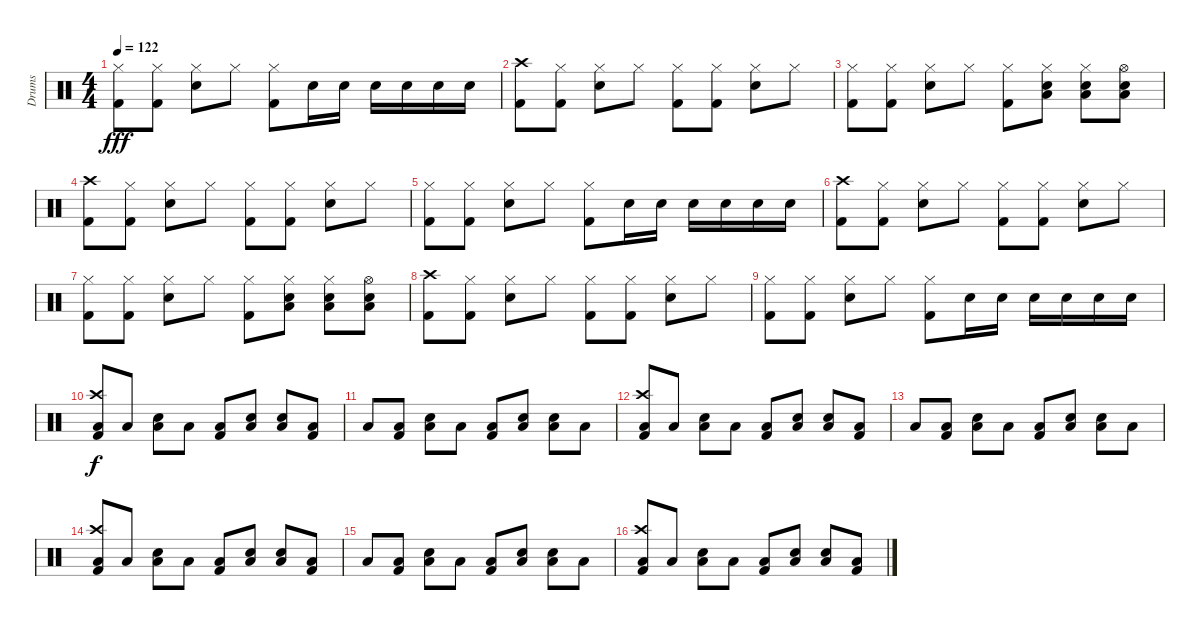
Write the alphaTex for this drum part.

\track ("Drums" "Drums") {instrument percussion}
\staff {score}
\articulation defaults
\ts (4 4)
\tempo 122
\clef neutral
\ks c
("Hi-Hat (closed)" "Kick (hit) 2").8{dy fff} ("Hi-Hat (closed)" "Kick (hit) 2").8 ("Hi-Hat (closed)" "Snare (hit) 2").8 "Hi-Hat (closed)".8 ("Hi-Hat (closed)" "Kick (hit) 2").8 "Snare (hit) 2".16 "Snare (hit) 2".16 "Snare (hit) 2".16 "Snare (hit) 2".16 "Snare (hit) 2".16 "Snare (hit) 2".16 |
("Crash high (hit)" "Kick (hit) 2").8 ("Hi-Hat (closed)" "Kick (hit) 2").8 ("Hi-Hat (closed)" "Snare (hit) 2").8 "Hi-Hat (closed)".8 ("Hi-Hat (closed)" "Kick (hit) 2").8 ("Hi-Hat (closed)" "Kick (hit) 2").8 ("Hi-Hat (closed)" "Snare (hit) 2").8 "Hi-Hat (closed)".8 |
("Hi-Hat (closed)" "Kick (hit) 2").8 ("Hi-Hat (closed)" "Kick (hit) 2").8 ("Hi-Hat (closed)" "Snare (hit) 2").8 "Hi-Hat (closed)".8 ("Hi-Hat (closed)" "Kick (hit) 2").8 ("Hi-Hat (closed)" "Snare (hit) 2" "Low Floor Tom (hit)").8 ("Hi-Hat (closed)" "Snare (hit) 2" "Low Floor Tom (hit)").8 ("Hi-Hat (open)" "Snare (hit) 2" "Low Floor Tom (hit)").8 |
("Crash high (hit)" "Kick (hit) 2").8 ("Hi-Hat (closed)" "Kick (hit) 2").8 ("Hi-Hat (closed)" "Snare (hit) 2").8 "Hi-Hat (closed)".8 ("Hi-Hat (closed)" "Kick (hit) 2").8 ("Hi-Hat (closed)" "Kick (hit) 2").8 ("Hi-Hat (closed)" "Snare (hit) 2").8 "Hi-Hat (closed)".8 |
("Hi-Hat (closed)" "Kick (hit) 2").8 ("Hi-Hat (closed)" "Kick (hit) 2").8 ("Hi-Hat (closed)" "Snare (hit) 2").8 "Hi-Hat (closed)".8 ("Hi-Hat (closed)" "Kick (hit) 2").8 "Snare (hit) 2".16 "Snare (hit) 2".16 "Snare (hit) 2".16 "Snare (hit) 2".16 "Snare (hit) 2".16 "Snare (hit) 2".16 |
("Crash high (hit)" "Kick (hit) 2").8 ("Hi-Hat (closed)" "Kick (hit) 2").8 ("Hi-Hat (closed)" "Snare (hit) 2").8 "Hi-Hat (closed)".8 ("Hi-Hat (closed)" "Kick (hit) 2").8 ("Hi-Hat (closed)" "Kick (hit) 2").8 ("Hi-Hat (closed)" "Snare (hit) 2").8 "Hi-Hat (closed)".8 |
("Hi-Hat (closed)" "Kick (hit) 2").8 ("Hi-Hat (closed)" "Kick (hit) 2").8 ("Hi-Hat (closed)" "Snare (hit) 2").8 "Hi-Hat (closed)".8 ("Hi-Hat (closed)" "Kick (hit) 2").8 ("Hi-Hat (closed)" "Snare (hit) 2" "Low Floor Tom (hit)").8 ("Hi-Hat (closed)" "Snare (hit) 2" "Low Floor Tom (hit)").8 ("Hi-Hat (open)" "Snare (hit) 2" "Low Floor Tom (hit)").8 |
("Crash high (hit)" "Kick (hit) 2").8 ("Hi-Hat (closed)" "Kick (hit) 2").8 ("Hi-Hat (closed)" "Snare (hit) 2").8 "Hi-Hat (closed)".8 ("Hi-Hat (closed)" "Kick (hit) 2").8 ("Hi-Hat (closed)" "Kick (hit) 2").8 ("Hi-Hat (closed)" "Snare (hit) 2").8 "Hi-Hat (closed)".8 |
("Hi-Hat (closed)" "Kick (hit) 2").8 ("Hi-Hat (closed)" "Kick (hit) 2").8 ("Hi-Hat (closed)" "Snare (hit) 2").8 "Hi-Hat (closed)".8 ("Hi-Hat (closed)" "Kick (hit) 2").8 "Snare (hit) 2".16 "Snare (hit) 2".16 "Snare (hit) 2".16 "Snare (hit) 2".16 "Snare (hit) 2".16 "Snare (hit) 2".16 |
("Crash high (hit)" "Low Floor Tom (hit)" "Kick (hit) 2").8{dy f} "Low Floor Tom (hit)".8 ("Snare (hit) 2" "Low Floor Tom (hit)").8 "Low Floor Tom (hit)".8 ("Low Floor Tom (hit)" "Kick (hit) 2").8 ("Snare (hit) 2" "Low Floor Tom (hit)").8 ("Snare (hit) 2" "Low Floor Tom (hit)").8 ("Low Floor Tom (hit)" "Kick (hit) 2").8 |
"Low Floor Tom (hit)".8 ("Low Floor Tom (hit)" "Kick (hit) 2").8 ("Snare (hit) 2" "Low Floor Tom (hit)").8 "Low Floor Tom (hit)".8 ("Low Floor Tom (hit)" "Kick (hit) 2").8 ("Snare (hit) 2" "Low Floor Tom (hit)").8 ("Snare (hit) 2" "Low Floor Tom (hit)").8 "Low Floor Tom (hit)".8 |
("Crash high (hit)" "Low Floor Tom (hit)" "Kick (hit) 2").8 "Low Floor Tom (hit)".8 ("Snare (hit) 2" "Low Floor Tom (hit)").8 "Low Floor Tom (hit)".8 ("Low Floor Tom (hit)" "Kick (hit) 2").8 ("Snare (hit) 2" "Low Floor Tom (hit)").8 ("Snare (hit) 2" "Low Floor Tom (hit)").8 ("Low Floor Tom (hit)" "Kick (hit) 2").8 |
"Low Floor Tom (hit)".8 ("Low Floor Tom (hit)" "Kick (hit) 2").8 ("Snare (hit) 2" "Low Floor Tom (hit)").8 "Low Floor Tom (hit)".8 ("Low Floor Tom (hit)" "Kick (hit) 2").8 ("Snare (hit) 2" "Low Floor Tom (hit)").8 ("Snare (hit) 2" "Low Floor Tom (hit)").8 "Low Floor Tom (hit)".8 |
("Crash high (hit)" "Low Floor Tom (hit)" "Kick (hit) 2").8 "Low Floor Tom (hit)".8 ("Snare (hit) 2" "Low Floor Tom (hit)").8 "Low Floor Tom (hit)".8 ("Low Floor Tom (hit)" "Kick (hit) 2").8 ("Snare (hit) 2" "Low Floor Tom (hit)").8 ("Snare (hit) 2" "Low Floor Tom (hit)").8 ("Low Floor Tom (hit)" "Kick (hit) 2").8 |
"Low Floor Tom (hit)".8 ("Low Floor Tom (hit)" "Kick (hit) 2").8 ("Snare (hit) 2" "Low Floor Tom (hit)").8 "Low Floor Tom (hit)".8 ("Low Floor Tom (hit)" "Kick (hit) 2").8 ("Snare (hit) 2" "Low Floor Tom (hit)").8 ("Snare (hit) 2" "Low Floor Tom (hit)").8 "Low Floor Tom (hit)".8 |
("Crash high (hit)" "Low Floor Tom (hit)" "Kick (hit) 2").8 "Low Floor Tom (hit)".8 ("Snare (hit) 2" "Low Floor Tom (hit)").8 "Low Floor Tom (hit)".8 ("Low Floor Tom (hit)" "Kick (hit) 2").8 ("Snare (hit) 2" "Low Floor Tom (hit)").8 ("Snare (hit) 2" "Low Floor Tom (hit)").8 ("Low Floor Tom (hit)" "Kick (hit) 2").8
